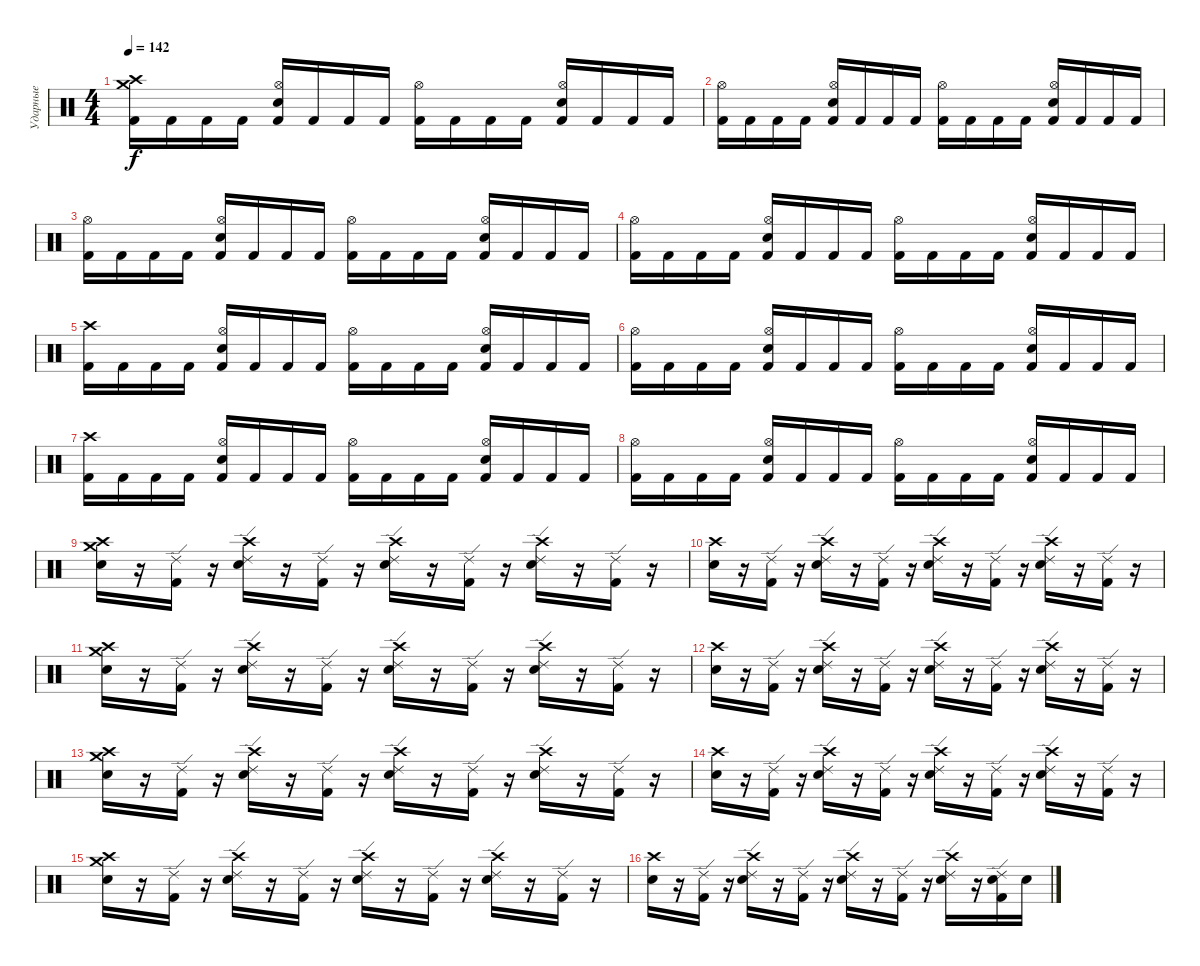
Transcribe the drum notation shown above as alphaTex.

\track ("Ударные" "Ударные") {instrument percussion}
\staff {score}
\articulation defaults
\ts (4 4)
\tempo 142
\clef neutral
\ks c
("Crash medium (hit)" "Crash high (hit)" "Kick (hit) 2").16{dy f} "Kick (hit) 2".16 "Kick (hit) 2".16 "Kick (hit) 2".16 ("Hi-Hat (open)" "Electric Snare (hit)" "Kick (hit) 2").16 "Kick (hit) 2".16 "Kick (hit) 2".16 "Kick (hit) 2".16 ("Hi-Hat (open)" "Kick (hit) 2").16 "Kick (hit) 2".16 "Kick (hit) 2".16 "Kick (hit) 2".16 ("Hi-Hat (open)" "Electric Snare (hit)" "Kick (hit) 2").16 "Kick (hit) 2".16 "Kick (hit) 2".16 "Kick (hit) 2".16 |
("Hi-Hat (open)" "Kick (hit) 2").16 "Kick (hit) 2".16 "Kick (hit) 2".16 "Kick (hit) 2".16 ("Hi-Hat (open)" "Electric Snare (hit)" "Kick (hit) 2").16 "Kick (hit) 2".16 "Kick (hit) 2".16 "Kick (hit) 2".16 ("Hi-Hat (open)" "Kick (hit) 2").16 "Kick (hit) 2".16 "Kick (hit) 2".16 "Kick (hit) 2".16 ("Hi-Hat (open)" "Electric Snare (hit)" "Kick (hit) 2").16 "Kick (hit) 2".16 "Kick (hit) 2".16 "Kick (hit) 2".16 |
("Hi-Hat (open)" "Kick (hit) 2").16 "Kick (hit) 2".16 "Kick (hit) 2".16 "Kick (hit) 2".16 ("Hi-Hat (open)" "Electric Snare (hit)" "Kick (hit) 2").16 "Kick (hit) 2".16 "Kick (hit) 2".16 "Kick (hit) 2".16 ("Hi-Hat (open)" "Kick (hit) 2").16 "Kick (hit) 2".16 "Kick (hit) 2".16 "Kick (hit) 2".16 ("Hi-Hat (open)" "Electric Snare (hit)" "Kick (hit) 2").16 "Kick (hit) 2".16 "Kick (hit) 2".16 "Kick (hit) 2".16 |
("Hi-Hat (open)" "Kick (hit) 2").16 "Kick (hit) 2".16 "Kick (hit) 2".16 "Kick (hit) 2".16 ("Hi-Hat (open)" "Electric Snare (hit)" "Kick (hit) 2").16 "Kick (hit) 2".16 "Kick (hit) 2".16 "Kick (hit) 2".16 ("Hi-Hat (open)" "Kick (hit) 2").16 "Kick (hit) 2".16 "Kick (hit) 2".16 "Kick (hit) 2".16 ("Hi-Hat (open)" "Electric Snare (hit)" "Kick (hit) 2").16 "Kick (hit) 2".16 "Kick (hit) 2".16 "Kick (hit) 2".16 |
("Crash high (hit)" "Kick (hit) 2").16 "Kick (hit) 2".16 "Kick (hit) 2".16 "Kick (hit) 2".16 ("Hi-Hat (open)" "Electric Snare (hit)" "Kick (hit) 2").16 "Kick (hit) 2".16 "Kick (hit) 2".16 "Kick (hit) 2".16 ("Hi-Hat (open)" "Kick (hit) 2").16 "Kick (hit) 2".16 "Kick (hit) 2".16 "Kick (hit) 2".16 ("Hi-Hat (open)" "Electric Snare (hit)" "Kick (hit) 2").16 "Kick (hit) 2".16 "Kick (hit) 2".16 "Kick (hit) 2".16 |
("Hi-Hat (open)" "Kick (hit) 2").16 "Kick (hit) 2".16 "Kick (hit) 2".16 "Kick (hit) 2".16 ("Hi-Hat (open)" "Electric Snare (hit)" "Kick (hit) 2").16 "Kick (hit) 2".16 "Kick (hit) 2".16 "Kick (hit) 2".16 ("Hi-Hat (open)" "Kick (hit) 2").16 "Kick (hit) 2".16 "Kick (hit) 2".16 "Kick (hit) 2".16 ("Hi-Hat (open)" "Electric Snare (hit)" "Kick (hit) 2").16 "Kick (hit) 2".16 "Kick (hit) 2".16 "Kick (hit) 2".16 |
("Crash high (hit)" "Kick (hit) 2").16 "Kick (hit) 2".16 "Kick (hit) 2".16 "Kick (hit) 2".16 ("Hi-Hat (open)" "Electric Snare (hit)" "Kick (hit) 2").16 "Kick (hit) 2".16 "Kick (hit) 2".16 "Kick (hit) 2".16 ("Hi-Hat (open)" "Kick (hit) 2").16 "Kick (hit) 2".16 "Kick (hit) 2".16 "Kick (hit) 2".16 ("Hi-Hat (open)" "Electric Snare (hit)" "Kick (hit) 2").16 "Kick (hit) 2".16 "Kick (hit) 2".16 "Kick (hit) 2".16 |
("Hi-Hat (open)" "Kick (hit) 2").16 "Kick (hit) 2".16 "Kick (hit) 2".16 "Kick (hit) 2".16 ("Hi-Hat (open)" "Electric Snare (hit)" "Kick (hit) 2").16 "Kick (hit) 2".16 "Kick (hit) 2".16 "Kick (hit) 2".16 ("Hi-Hat (open)" "Kick (hit) 2").16 "Kick (hit) 2".16 "Kick (hit) 2".16 "Kick (hit) 2".16 ("Hi-Hat (open)" "Electric Snare (hit)" "Kick (hit) 2").16 "Kick (hit) 2".16 "Kick (hit) 2".16 "Kick (hit) 2".16 |
("Crash high (hit)" "Crash medium (hit)" "Electric Snare (hit)").16 r.16 ("Ride (edge) 2" "Kick (hit) 2").16 r.16 ("Crash high (hit)" "Ride (edge) 2" "Electric Snare (hit)").16 r.16 ("Ride (edge) 2" "Kick (hit) 2").16 r.16 ("Crash high (hit)" "Ride (edge) 2" "Electric Snare (hit)").16 r.16 ("Ride (edge) 2" "Kick (hit) 2").16 r.16 ("Crash high (hit)" "Ride (edge) 2" "Electric Snare (hit)").16 r.16 ("Ride (edge) 2" "Kick (hit) 2").16 r.16 |
("Crash high (hit)" "Electric Snare (hit)").16 r.16 ("Ride (edge) 2" "Kick (hit) 2").16 r.16 ("Crash high (hit)" "Ride (edge) 2" "Electric Snare (hit)").16 r.16 ("Ride (edge) 2" "Kick (hit) 2").16 r.16 ("Crash high (hit)" "Ride (edge) 2" "Electric Snare (hit)").16 r.16 ("Ride (edge) 2" "Kick (hit) 2").16 r.16 ("Crash high (hit)" "Ride (edge) 2" "Electric Snare (hit)").16 r.16 ("Ride (edge) 2" "Kick (hit) 2").16 r.16 |
("Crash high (hit)" "Crash medium (hit)" "Electric Snare (hit)").16 r.16 ("Ride (edge) 2" "Kick (hit) 2").16 r.16 ("Crash high (hit)" "Ride (edge) 2" "Electric Snare (hit)").16 r.16 ("Ride (edge) 2" "Kick (hit) 2").16 r.16 ("Crash high (hit)" "Ride (edge) 2" "Electric Snare (hit)").16 r.16 ("Ride (edge) 2" "Kick (hit) 2").16 r.16 ("Crash high (hit)" "Ride (edge) 2" "Electric Snare (hit)").16 r.16 ("Ride (edge) 2" "Kick (hit) 2").16 r.16 |
("Crash high (hit)" "Electric Snare (hit)").16 r.16 ("Ride (edge) 2" "Kick (hit) 2").16 r.16 ("Crash high (hit)" "Ride (edge) 2" "Electric Snare (hit)").16 r.16 ("Ride (edge) 2" "Kick (hit) 2").16 r.16 ("Crash high (hit)" "Ride (edge) 2" "Electric Snare (hit)").16 r.16 ("Ride (edge) 2" "Kick (hit) 2").16 r.16 ("Crash high (hit)" "Ride (edge) 2" "Electric Snare (hit)").16 r.16 ("Ride (edge) 2" "Kick (hit) 2").16 r.16 |
("Crash high (hit)" "Crash medium (hit)" "Electric Snare (hit)").16 r.16 ("Ride (edge) 2" "Kick (hit) 2").16 r.16 ("Crash high (hit)" "Ride (edge) 2" "Electric Snare (hit)").16 r.16 ("Ride (edge) 2" "Kick (hit) 2").16 r.16 ("Crash high (hit)" "Ride (edge) 2" "Electric Snare (hit)").16 r.16 ("Ride (edge) 2" "Kick (hit) 2").16 r.16 ("Crash high (hit)" "Ride (edge) 2" "Electric Snare (hit)").16 r.16 ("Ride (edge) 2" "Kick (hit) 2").16 r.16 |
("Crash high (hit)" "Electric Snare (hit)").16 r.16 ("Ride (edge) 2" "Kick (hit) 2").16 r.16 ("Crash high (hit)" "Ride (edge) 2" "Electric Snare (hit)").16 r.16 ("Ride (edge) 2" "Kick (hit) 2").16 r.16 ("Crash high (hit)" "Ride (edge) 2" "Electric Snare (hit)").16 r.16 ("Ride (edge) 2" "Kick (hit) 2").16 r.16 ("Crash high (hit)" "Ride (edge) 2" "Electric Snare (hit)").16 r.16 ("Ride (edge) 2" "Kick (hit) 2").16 r.16 |
("Crash high (hit)" "Crash medium (hit)" "Electric Snare (hit)").16 r.16 ("Ride (edge) 2" "Kick (hit) 2").16 r.16 ("Crash high (hit)" "Ride (edge) 2" "Electric Snare (hit)").16 r.16 ("Ride (edge) 2" "Kick (hit) 2").16 r.16 ("Crash high (hit)" "Ride (edge) 2" "Electric Snare (hit)").16 r.16 ("Ride (edge) 2" "Kick (hit) 2").16 r.16 ("Crash high (hit)" "Ride (edge) 2" "Electric Snare (hit)").16 r.16 ("Ride (edge) 2" "Kick (hit) 2").16 r.16 |
("Crash high (hit)" "Electric Snare (hit)").16 r.16 ("Ride (edge) 2" "Kick (hit) 2").16 r.16 ("Crash high (hit)" "Ride (edge) 2" "Electric Snare (hit)").16 r.16 ("Ride (edge) 2" "Kick (hit) 2").16 r.16 ("Crash high (hit)" "Ride (edge) 2" "Electric Snare (hit)").16 r.16 ("Ride (edge) 2" "Kick (hit) 2").16 r.16 ("Crash high (hit)" "Ride (edge) 2" "Electric Snare (hit)").16 r.16 ("Ride (edge) 2" "Electric Snare (hit)" "Kick (hit) 2").16 "Electric Snare (hit)".16
